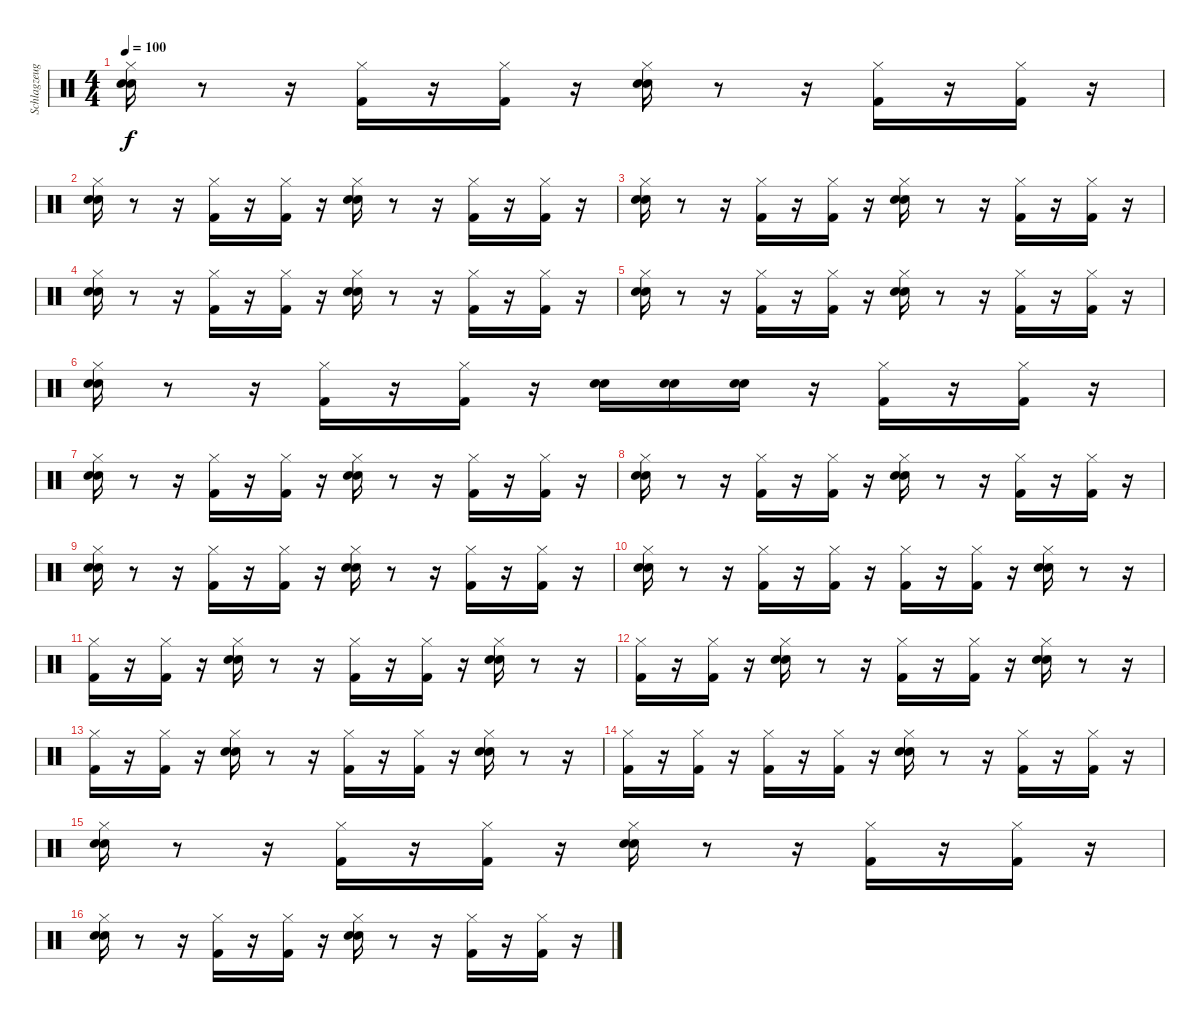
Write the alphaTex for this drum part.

\track ("Schlagzeug" "Schlagzeug") {instrument percussion}
\staff {score}
\articulation defaults
\ts (4 4)
\tempo 100
\clef neutral
\ks c
("Hi-Hat (closed)" "Snare (hit) 2" "Hand Clap (hit)").16{dy f} r.8 r.16 ("Hi-Hat (closed)" "Kick (hit) 2").16 r.16 ("Kick (hit) 2" "Hi-Hat (closed)").16 r.16 ("Hand Clap (hit)" "Hi-Hat (closed)" "Snare (hit) 2").16 r.8 r.16 ("Hi-Hat (closed)" "Kick (hit) 2").16 r.16 ("Kick (hit) 2" "Hi-Hat (closed)").16 r.16 |
("Snare (hit) 2" "Hand Clap (hit)" "Hi-Hat (closed)").16 r.8 r.16 ("Hi-Hat (closed)" "Kick (hit) 2").16 r.16 ("Kick (hit) 2" "Hi-Hat (closed)").16 r.16 ("Hand Clap (hit)" "Hi-Hat (closed)" "Snare (hit) 2").16 r.8 r.16 ("Hi-Hat (closed)" "Kick (hit) 2").16 r.16 ("Kick (hit) 2" "Hi-Hat (closed)").16 r.16 |
("Snare (hit) 2" "Hand Clap (hit)" "Hi-Hat (closed)").16 r.8 r.16 ("Kick (hit) 2" "Hi-Hat (closed)").16 r.16 ("Hi-Hat (closed)" "Kick (hit) 2").16 r.16 ("Hand Clap (hit)" "Snare (hit) 2" "Hi-Hat (closed)").16 r.8 r.16 ("Hi-Hat (closed)" "Kick (hit) 2").16 r.16 ("Hi-Hat (closed)" "Kick (hit) 2").16 r.16 |
("Hi-Hat (closed)" "Snare (hit) 2" "Hand Clap (hit)").16 r.8 r.16 ("Hi-Hat (closed)" "Kick (hit) 2").16 r.16 ("Kick (hit) 2" "Hi-Hat (closed)").16 r.16 ("Hi-Hat (closed)" "Snare (hit) 2" "Hand Clap (hit)").16 r.8 r.16 ("Hi-Hat (closed)" "Kick (hit) 2").16 r.16 ("Hi-Hat (closed)" "Kick (hit) 2").16 r.16 |
("Hand Clap (hit)" "Snare (hit) 2" "Hi-Hat (closed)").16 r.8 r.16 ("Hi-Hat (closed)" "Kick (hit) 2").16 r.16 ("Kick (hit) 2" "Hi-Hat (closed)").16 r.16 ("Snare (hit) 2" "Hand Clap (hit)" "Hi-Hat (closed)").16 r.8 r.16 ("Hi-Hat (closed)" "Kick (hit) 2").16 r.16 ("Kick (hit) 2" "Hi-Hat (closed)").16 r.16 |
("Hand Clap (hit)" "Hi-Hat (closed)" "Snare (hit) 2").16 r.8 r.16 ("Hi-Hat (closed)" "Kick (hit) 2").16 r.16 ("Kick (hit) 2" "Hi-Hat (closed)").16 r.16 ("Snare (hit) 2" "Hand Clap (hit)").16 ("Snare (hit)" "Snare (hit) 2").16 ("Snare (hit)" "Snare (hit) 2").16 r.16 ("Kick (hit) 2" "Hi-Hat (closed)").16 r.16 ("Hi-Hat (closed)" "Kick (hit) 2").16 r.16 |
("Snare (hit) 2" "Hand Clap (hit)" "Hi-Hat (closed)").16 r.8 r.16 ("Hi-Hat (closed)" "Kick (hit) 2").16 r.16 ("Hi-Hat (closed)" "Kick (hit) 2").16 r.16 ("Hi-Hat (closed)" "Snare (hit) 2" "Hand Clap (hit)").16 r.8 r.16 ("Kick (hit) 2" "Hi-Hat (closed)").16 r.16 ("Hi-Hat (closed)" "Kick (hit) 2").16 r.16 |
("Snare (hit) 2" "Hand Clap (hit)" "Hi-Hat (closed)").16 r.8 r.16 ("Hi-Hat (closed)" "Kick (hit) 2").16 r.16 ("Hi-Hat (closed)" "Kick (hit) 2").16 r.16 ("Hi-Hat (closed)" "Hand Clap (hit)" "Snare (hit) 2").16 r.8 r.16 ("Kick (hit) 2" "Hi-Hat (closed)").16 r.16 ("Hi-Hat (closed)" "Kick (hit) 2").16 r.16 |
("Snare (hit) 2" "Hi-Hat (closed)" "Hand Clap (hit)").16 r.8 r.16 ("Hi-Hat (closed)" "Kick (hit) 2").16 r.16 ("Hi-Hat (closed)" "Kick (hit) 2").16 r.16 ("Hand Clap (hit)" "Snare (hit) 2" "Hi-Hat (closed)").16 r.8 r.16 ("Hi-Hat (closed)" "Kick (hit) 2").16 r.16 ("Kick (hit) 2" "Hi-Hat (closed)").16 r.16 |
("Hi-Hat (closed)" "Snare (hit) 2" "Hand Clap (hit)").16 r.8 r.16 ("Hi-Hat (closed)" "Kick (hit) 2").16 r.16 ("Hi-Hat (closed)" "Kick (hit) 2").16 r.16 ("Hi-Hat (closed)" "Kick (hit) 2").16 r.16 ("Kick (hit) 2" "Hi-Hat (closed)").16 r.16 ("Snare (hit) 2" "Hi-Hat (closed)" "Hand Clap (hit)").16 r.8 r.16 |
("Hi-Hat (closed)" "Kick (hit) 2").16 r.16 ("Hi-Hat (closed)" "Kick (hit) 2").16 r.16 ("Hi-Hat (closed)" "Hand Clap (hit)" "Snare (hit) 2").16 r.8 r.16 ("Kick (hit) 2" "Hi-Hat (closed)").16 r.16 ("Hi-Hat (closed)" "Kick (hit) 2").16 r.16 ("Hand Clap (hit)" "Snare (hit) 2" "Hi-Hat (closed)").16 r.8 r.16 |
("Hi-Hat (closed)" "Kick (hit) 2").16 r.16 ("Hi-Hat (closed)" "Kick (hit) 2").16 r.16 ("Hand Clap (hit)" "Snare (hit) 2" "Hi-Hat (closed)").16 r.8 r.16 ("Kick (hit) 2" "Hi-Hat (closed)").16 r.16 ("Kick (hit) 2" "Hi-Hat (closed)").16 r.16 ("Hand Clap (hit)" "Snare (hit) 2" "Hi-Hat (closed)").16 r.8 r.16 |
("Hi-Hat (closed)" "Kick (hit) 2").16 r.16 ("Hi-Hat (closed)" "Kick (hit) 2").16 r.16 ("Hi-Hat (closed)" "Hand Clap (hit)" "Snare (hit) 2").16 r.8 r.16 ("Hi-Hat (closed)" "Kick (hit) 2").16 r.16 ("Hi-Hat (closed)" "Kick (hit) 2").16 r.16 ("Hi-Hat (closed)" "Snare (hit) 2" "Hand Clap (hit)").16 r.8 r.16 |
("Kick (hit) 2" "Hi-Hat (closed)").16 r.16 ("Hi-Hat (closed)" "Kick (hit) 2").16 r.16 ("Hi-Hat (closed)" "Kick (hit) 2").16 r.16 ("Hi-Hat (closed)" "Kick (hit) 2").16 r.16 ("Hi-Hat (closed)" "Hand Clap (hit)" "Snare (hit) 2").16 r.8 r.16 ("Kick (hit) 2" "Hi-Hat (closed)").16 r.16 ("Kick (hit) 2" "Hi-Hat (closed)").16 r.16 |
("Hand Clap (hit)" "Hi-Hat (closed)" "Snare (hit) 2").16 r.8 r.16 ("Kick (hit) 2" "Hi-Hat (closed)").16 r.16 ("Kick (hit) 2" "Hi-Hat (closed)").16 r.16 ("Hand Clap (hit)" "Hi-Hat (closed)" "Snare (hit) 2").16 r.8 r.16 ("Kick (hit) 2" "Hi-Hat (closed)").16 r.16 ("Hi-Hat (closed)" "Kick (hit) 2").16 r.16 |
("Hi-Hat (closed)" "Snare (hit) 2" "Hand Clap (hit)").16 r.8 r.16 ("Hi-Hat (closed)" "Kick (hit) 2").16 r.16 ("Hi-Hat (closed)" "Kick (hit) 2").16 r.16 ("Hand Clap (hit)" "Hi-Hat (closed)" "Snare (hit) 2").16 r.8 r.16 ("Hi-Hat (closed)" "Kick (hit) 2").16 r.16 ("Kick (hit) 2" "Hi-Hat (closed)").16 r.16
